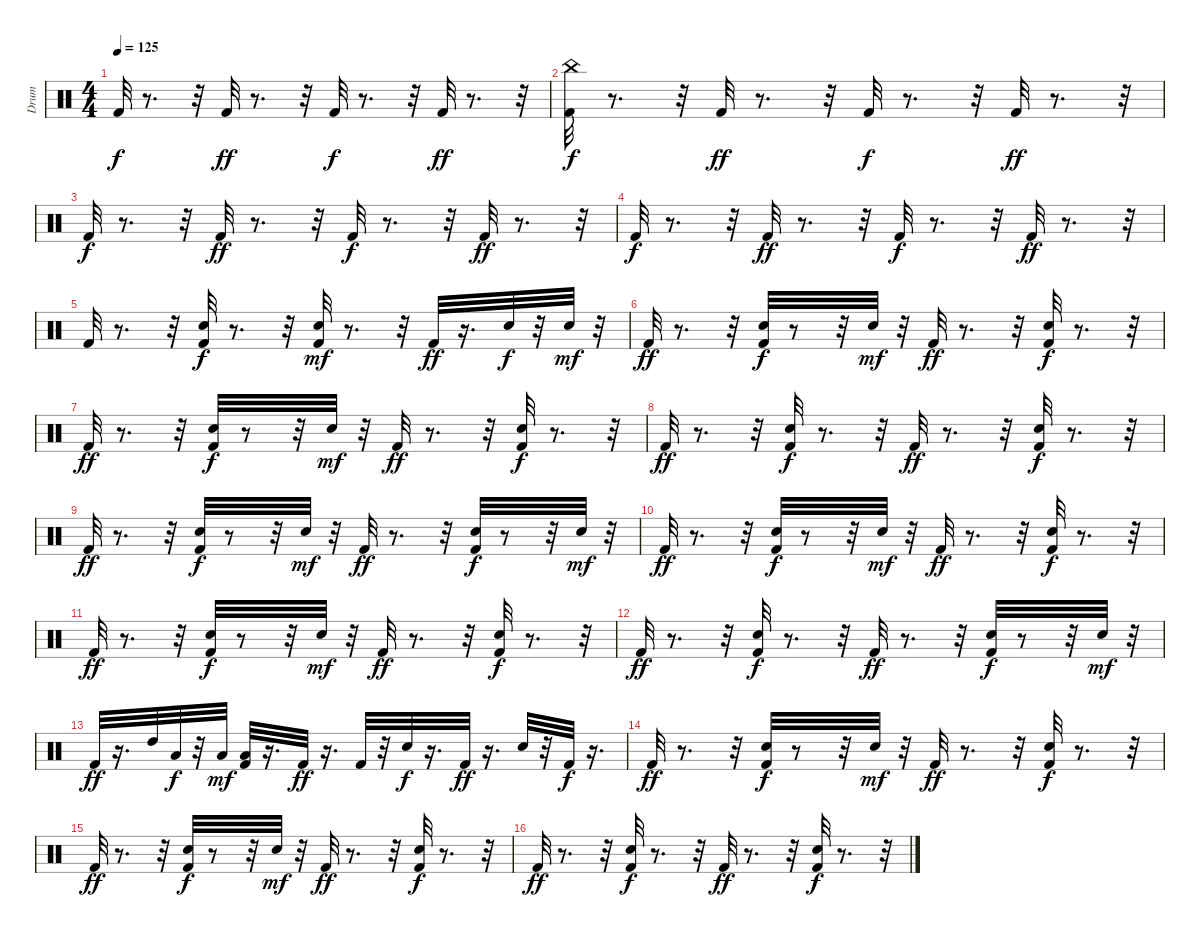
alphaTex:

\track ("Drum" "Drum") {instrument percussion}
\staff {score}
\articulation defaults
\ts (4 4)
\tempo 125
\clef neutral
\ks c "Kick (hit) 2".32{dy f}
r.8{d} r.32 "Kick (hit) 2".32{dy ff} r.8{d} r.32 "Kick (hit) 2".32{dy f} r.8{d} r.32 "Kick (hit) 2".32{dy ff} r.8{d} r.32 |
("China (hit)" "Kick (hit) 2").32{dy f} r.8{d} r.32 "Kick (hit) 2".32{dy ff} r.8{d} r.32 "Kick (hit) 2".32{dy f} r.8{d} r.32 "Kick (hit) 2".32{dy ff} r.8{d} r.32 |
"Kick (hit) 2".32{dy f} r.8{d} r.32 "Kick (hit) 2".32{dy ff} r.8{d} r.32 "Kick (hit) 2".32{dy f} r.8{d} r.32 "Kick (hit) 2".32{dy ff} r.8{d} r.32 |
"Kick (hit) 2".32{dy f} r.8{d} r.32 "Kick (hit) 2".32{dy ff} r.8{d} r.32 "Kick (hit) 2".32{dy f} r.8{d} r.32 "Kick (hit) 2".32{dy ff} r.8{d} r.32 |
"Kick (hit) 2".32 r.8{d} r.32 ("Snare (hit) 2" "Kick (hit) 2").32{dy f} r.8{d} r.32 ("Snare (hit) 2" "Kick (hit) 2").32{dy mf} r.8{d} r.32 "Kick (hit) 2".32{dy ff} r.16{d} "Snare (hit) 2".32{dy f} r.32 "Snare (hit) 2".32{dy mf} r.32 |
"Kick (hit) 2".32{dy ff} r.8{d} r.32 ("Snare (hit) 2" "Kick (hit) 2").32{dy f} r.8 r.32 "Snare (hit) 2".32{dy mf} r.32 "Kick (hit) 2".32{dy ff} r.8{d} r.32 ("Snare (hit) 2" "Kick (hit) 2").32{dy f} r.8{d} r.32 |
"Kick (hit) 2".32{dy ff} r.8{d} r.32 ("Snare (hit) 2" "Kick (hit) 2").32{dy f} r.8 r.32 "Snare (hit) 2".32{dy mf} r.32 "Kick (hit) 2".32{dy ff} r.8{d} r.32 ("Snare (hit) 2" "Kick (hit) 2").32{dy f} r.8{d} r.32 |
"Kick (hit) 2".32{dy ff} r.8{d} r.32 ("Snare (hit) 2" "Kick (hit) 2").32{dy f} r.8{d} r.32 "Kick (hit) 2".32{dy ff} r.8{d} r.32 ("Snare (hit) 2" "Kick (hit) 2").32{dy f} r.8{d} r.32 |
"Kick (hit) 2".32{dy ff} r.8{d} r.32 ("Snare (hit) 2" "Kick (hit) 2").32{dy f} r.8 r.32 "Snare (hit) 2".32{dy mf} r.32 "Kick (hit) 2".32{dy ff} r.8{d} r.32 ("Snare (hit) 2" "Kick (hit) 2").32{dy f} r.8 r.32 "Snare (hit) 2".32{dy mf} r.32 |
"Kick (hit) 2".32{dy ff} r.8{d} r.32 ("Snare (hit) 2" "Kick (hit) 2").32{dy f} r.8 r.32 "Snare (hit) 2".32{dy mf} r.32 "Kick (hit) 2".32{dy ff} r.8{d} r.32 ("Snare (hit) 2" "Kick (hit) 2").32{dy f} r.8{d} r.32 |
"Kick (hit) 2".32{dy ff} r.8{d} r.32 ("Snare (hit) 2" "Kick (hit) 2").32{dy f} r.8 r.32 "Snare (hit) 2".32{dy mf} r.32 "Kick (hit) 2".32{dy ff} r.8{d} r.32 ("Snare (hit) 2" "Kick (hit) 2").32{dy f} r.8{d} r.32 |
"Kick (hit) 2".32{dy ff} r.8{d} r.32 ("Snare (hit) 2" "Kick (hit) 2").32{dy f} r.8{d} r.32 "Kick (hit) 2".32{dy ff} r.8{d} r.32 ("Snare (hit) 2" "Kick (hit) 2").32{dy f} r.8 r.32 "Snare (hit) 2".32{dy mf} r.32 |
"Kick (hit) 2".32{dy ff} r.16{d} "High Tom (hit)".32 "Low Tom (hit)".32{dy f} r.32 "Low Floor Tom (hit)".32{dy mf} ("Low Floor Tom (hit)" "Kick (hit) 2").32 r.16{d} "Kick (hit) 2".32{dy ff} r.16{d} "Kick (hit) 2".32 r.32 "Snare (hit) 2".32{dy f} r.16{d} "Kick (hit) 2".32{dy ff} r.16{d} "Snare (hit) 2".32 r.32 "Kick (hit) 2".32{dy f} r.16{d} |
"Kick (hit) 2".32{dy ff volume 16} r.8{d} r.32 ("Snare (hit) 2" "Kick (hit) 2").32{dy f} r.8 r.32 "Snare (hit) 2".32{dy mf} r.32 "Kick (hit) 2".32{dy ff} r.8{d} r.32 ("Snare (hit) 2" "Kick (hit) 2").32{dy f} r.8{d} r.32 |
"Kick (hit) 2".32{dy ff} r.8{d} r.32 ("Snare (hit) 2" "Kick (hit) 2").32{dy f} r.8 r.32 "Snare (hit) 2".32{dy mf} r.32 "Kick (hit) 2".32{dy ff} r.8{d} r.32 ("Snare (hit) 2" "Kick (hit) 2").32{dy f} r.8{d} r.32 |
"Kick (hit) 2".32{dy ff} r.8{d} r.32 ("Snare (hit) 2" "Kick (hit) 2").32{dy f} r.8{d} r.32 "Kick (hit) 2".32{dy ff} r.8{d} r.32 ("Snare (hit) 2" "Kick (hit) 2").32{dy f} r.8{d} r.32
